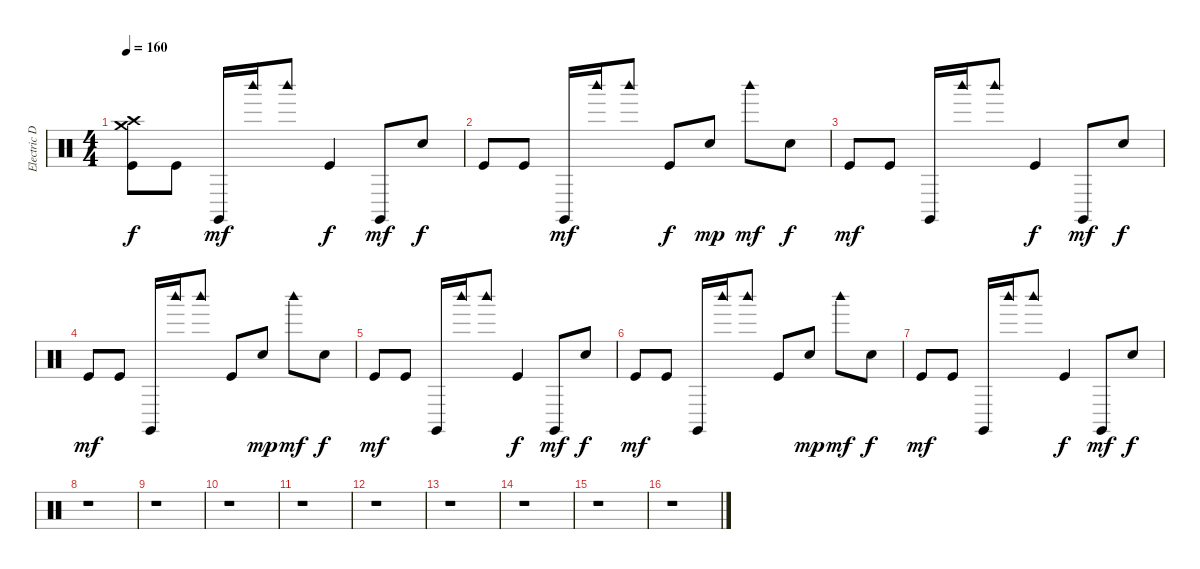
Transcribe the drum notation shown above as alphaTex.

\track ("Electric Drums" "Electric D") {instrument percussion}
\staff {score}
\articulation defaults
\ts (4 4)
\tempo 160
\clef neutral
\ks c
("Crash medium (hit)" "Crash high (hit)" "Kick (hit)").8{dy f} "Kick (hit)".8 "Claves (hit)".16{dy mf} "Woodblock high (hit)".16 "Woodblock high (hit)".8 "Kick (hit)".4{dy f} "Claves (hit)".8{dy mf} "Electric Snare (hit)".8{dy f} |
"Kick (hit)".8 "Kick (hit)".8 "Claves (hit)".16{dy mf} "Woodblock high (hit)".16 "Woodblock high (hit)".8 "Kick (hit)".8{dy f} "Electric Snare (hit)".8{dy mp} "Woodblock high (hit)".8{dy mf} "Electric Snare (hit)".8{dy f} |
"Kick (hit)".8{dy mf} "Kick (hit)".8 "Claves (hit)".16 "Woodblock high (hit)".16 "Woodblock high (hit)".8 "Kick (hit)".4{dy f} "Claves (hit)".8{dy mf} "Electric Snare (hit)".8{dy f} |
"Kick (hit)".8{dy mf} "Kick (hit)".8 "Claves (hit)".16 "Woodblock high (hit)".16 "Woodblock high (hit)".8 "Kick (hit)".8 "Electric Snare (hit)".8{dy mp} "Woodblock high (hit)".8{dy mf} "Electric Snare (hit)".8{dy f} |
"Kick (hit)".8{dy mf} "Kick (hit)".8 "Claves (hit)".16 "Woodblock high (hit)".16 "Woodblock high (hit)".8 "Kick (hit)".4{dy f} "Claves (hit)".8{dy mf} "Electric Snare (hit)".8{dy f} |
"Kick (hit)".8{dy mf} "Kick (hit)".8 "Claves (hit)".16 "Woodblock high (hit)".16 "Woodblock high (hit)".8 "Kick (hit)".8 "Electric Snare (hit)".8{dy mp} "Woodblock high (hit)".8{dy mf} "Electric Snare (hit)".8{dy f} |
"Kick (hit)".8{dy mf} "Kick (hit)".8 "Claves (hit)".16 "Woodblock high (hit)".16 "Woodblock high (hit)".8 "Kick (hit)".4{dy f} "Claves (hit)".8{dy mf} "Electric Snare (hit)".8{dy f} |
r.1 |
r.1 |
r.1 |
r.1 |
r.1 |
r.1 |
r.1 |
r.1 |
r.1
